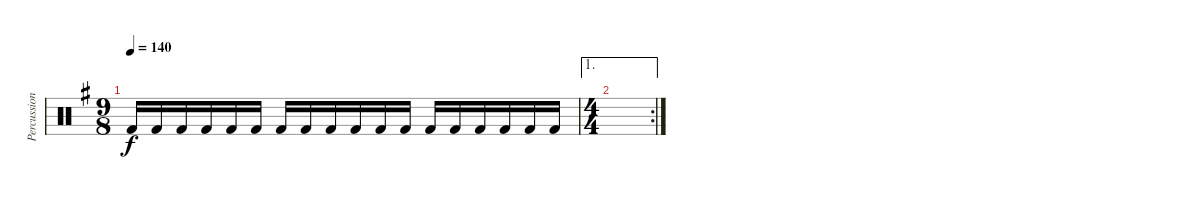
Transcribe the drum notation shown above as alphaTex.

\track ("Percussion" "Percussion") {instrument percussion}
\staff {score}
\articulation defaults
\ts (9 8)
\tempo 140
\clef neutral
\ks g "Kick (hit) 2".16{dy f} "Kick (hit) 2".16 "Kick (hit) 2".16 "Kick (hit) 2".16 "Kick (hit) 2".16 "Kick (hit) 2".16 "Kick (hit) 2".16 "Kick (hit) 2".16 "Kick (hit) 2".16 "Kick (hit) 2".16 "Kick (hit) 2".16 "Kick (hit) 2".16 "Kick (hit) 2".16 "Kick (hit) 2".16 "Kick (hit) 2".16 "Kick (hit) 2".16 "Kick (hit) 2".16 "Kick (hit) 2".16
|
\ae 1
\rc 2
\ts (4 4)
